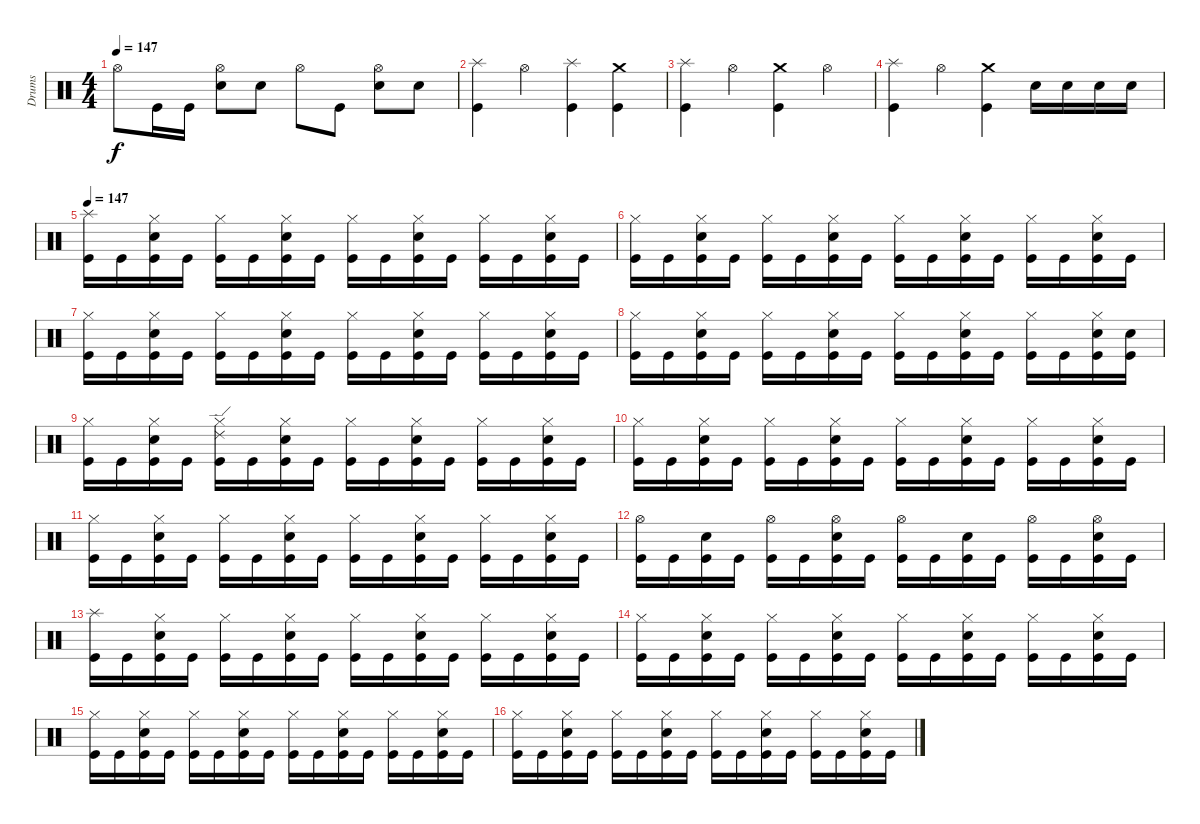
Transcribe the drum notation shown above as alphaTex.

\track ("Drums" "Drums") {instrument percussion}
\staff {score}
\articulation defaults
\ts (4 4)
\tempo 147
\clef neutral
\ks c "Hi-Hat (open)".8{dy f} "Kick (hit)".16 "Kick (hit)".16
("Snare (hit) 2" "Hi-Hat (open)").8 "Snare (hit) 2".8 "Hi-Hat (open)".8 "Kick (hit)".8 ("Snare (hit) 2" "Hi-Hat (open)").8 "Snare (hit) 2".8 |
("Splash (hit)" "Kick (hit)").4 "Hi-Hat (open)".4 ("Kick (hit)" "Splash (hit)").4 ("Kick (hit)" "Crash medium (hit)").4 |
("Splash (hit)" "Kick (hit)").4 "Hi-Hat (open)".4 ("Crash medium (hit)" "Kick (hit)").4 "Hi-Hat (open)".4 |
("Splash (hit)" "Kick (hit)").4 "Hi-Hat (open)".4 ("Kick (hit)" "Crash medium (hit)").4 "Snare (hit) 2".16 "Snare (hit) 2".16 "Snare (hit) 2".16 "Snare (hit) 2".16 |
\tempo 147
("Kick (hit)" "Splash (hit)").16 "Kick (hit)".16 ("Hi-Hat (closed)" "Snare (hit) 2" "Kick (hit)").16 "Kick (hit)".16 ("Kick (hit)" "Hi-Hat (closed)").16 "Kick (hit)".16 ("Kick (hit)" "Snare (hit) 2" "Hi-Hat (closed)").16 "Kick (hit)".16 ("Hi-Hat (closed)" "Kick (hit)").16 "Kick (hit)".16 ("Hi-Hat (closed)" "Snare (hit) 2" "Kick (hit)").16 "Kick (hit)".16 ("Kick (hit)" "Hi-Hat (closed)").16 "Kick (hit)".16 ("Hi-Hat (closed)" "Snare (hit) 2" "Kick (hit)").16 "Kick (hit)".16 |
("Hi-Hat (closed)" "Kick (hit)").16 "Kick (hit)".16 ("Snare (hit) 2" "Kick (hit)" "Hi-Hat (closed)").16 "Kick (hit)".16 ("Hi-Hat (closed)" "Kick (hit)").16 "Kick (hit)".16 ("Snare (hit) 2" "Hi-Hat (closed)" "Kick (hit)").16 "Kick (hit)".16 ("Hi-Hat (closed)" "Kick (hit)").16 "Kick (hit)".16 ("Hi-Hat (closed)" "Kick (hit)" "Snare (hit) 2").16 "Kick (hit)".16 ("Kick (hit)" "Hi-Hat (closed)").16 "Kick (hit)".16 ("Kick (hit)" "Hi-Hat (closed)" "Snare (hit) 2").16 "Kick (hit)".16 |
("Kick (hit)" "Hi-Hat (closed)").16 "Kick (hit)".16 ("Snare (hit) 2" "Kick (hit)" "Hi-Hat (closed)").16 "Kick (hit)".16 ("Kick (hit)" "Hi-Hat (closed)").16 "Kick (hit)".16 ("Snare (hit) 2" "Hi-Hat (closed)" "Kick (hit)").16 "Kick (hit)".16 ("Hi-Hat (closed)" "Kick (hit)").16 "Kick (hit)".16 ("Hi-Hat (closed)" "Kick (hit)" "Snare (hit) 2").16 "Kick (hit)".16 ("Kick (hit)" "Hi-Hat (closed)").16 "Kick (hit)".16 ("Hi-Hat (closed)" "Kick (hit)" "Snare (hit) 2").16 "Kick (hit)".16 |
("Kick (hit)" "Hi-Hat (closed)").16 "Kick (hit)".16 ("Snare (hit) 2" "Hi-Hat (closed)" "Kick (hit)").16 "Kick (hit)".16 ("Kick (hit)" "Hi-Hat (closed)").16 "Kick (hit)".16 ("Snare (hit) 2" "Kick (hit)" "Hi-Hat (closed)").16 "Kick (hit)".16 ("Hi-Hat (closed)" "Kick (hit)").16 "Kick (hit)".16 ("Snare (hit) 2" "Hi-Hat (closed)" "Kick (hit)").16 "Kick (hit)".16 ("Hi-Hat (closed)" "Kick (hit)").16 "Kick (hit)".16 ("Snare (hit) 2" "Kick (hit)" "Hi-Hat (closed)").16 ("Snare (hit) 2" "Kick (hit)").16 |
("Hi-Hat (closed)" "Kick (hit)").16 "Kick (hit)".16 ("Kick (hit)" "Snare (hit) 2" "Hi-Hat (closed)").16 "Kick (hit)".16 ("Ride (edge) 2" "Hi-Hat (closed)" "Kick (hit)").16 "Kick (hit)".16 ("Kick (hit)" "Snare (hit) 2" "Hi-Hat (closed)").16 "Kick (hit)".16 ("Hi-Hat (closed)" "Kick (hit)").16 "Kick (hit)".16 ("Kick (hit)" "Hi-Hat (closed)" "Snare (hit) 2").16 "Kick (hit)".16 ("Kick (hit)" "Hi-Hat (closed)").16 "Kick (hit)".16 ("Kick (hit)" "Hi-Hat (closed)" "Snare (hit) 2").16 "Kick (hit)".16 |
("Kick (hit)" "Hi-Hat (closed)").16 "Kick (hit)".16 ("Hi-Hat (closed)" "Snare (hit) 2" "Kick (hit)").16 "Kick (hit)".16 ("Kick (hit)" "Hi-Hat (closed)").16 "Kick (hit)".16 ("Hi-Hat (closed)" "Snare (hit) 2" "Kick (hit)").16 "Kick (hit)".16 ("Kick (hit)" "Hi-Hat (closed)").16 "Kick (hit)".16 ("Kick (hit)" "Hi-Hat (closed)" "Snare (hit) 2").16 "Kick (hit)".16 ("Kick (hit)" "Hi-Hat (closed)").16 "Kick (hit)".16 ("Hi-Hat (closed)" "Kick (hit)" "Snare (hit) 2").16 "Kick (hit)".16 |
("Kick (hit)" "Hi-Hat (closed)").16 "Kick (hit)".16 ("Hi-Hat (closed)" "Snare (hit) 2" "Kick (hit)").16 "Kick (hit)".16 ("Kick (hit)" "Hi-Hat (closed)").16 "Kick (hit)".16 ("Kick (hit)" "Snare (hit) 2" "Hi-Hat (closed)").16 "Kick (hit)".16 ("Kick (hit)" "Hi-Hat (closed)").16 "Kick (hit)".16 ("Snare (hit) 2" "Hi-Hat (closed)" "Kick (hit)").16 "Kick (hit)".16 ("Kick (hit)" "Hi-Hat (closed)").16 "Kick (hit)".16 ("Hi-Hat (closed)" "Snare (hit) 2" "Kick (hit)").16 "Kick (hit)".16 |
("Hi-Hat (open)" "Kick (hit)").16 "Kick (hit)".16 ("Kick (hit)" "Snare (hit) 2").16 "Kick (hit)".16 ("Hi-Hat (open)" "Kick (hit)").16 "Kick (hit)".16 ("Kick (hit)" "Snare (hit) 2" "Hi-Hat (open)").16 "Kick (hit)".16 ("Hi-Hat (open)" "Kick (hit)").16 "Kick (hit)".16 ("Kick (hit)" "Snare (hit) 2").16 "Kick (hit)".16 ("Hi-Hat (open)" "Kick (hit)").16 "Kick (hit)".16 ("Kick (hit)" "Snare (hit) 2" "Hi-Hat (open)").16 "Kick (hit)".16 |
("Kick (hit)" "Splash (hit)").16 "Kick (hit)".16 ("Hi-Hat (closed)" "Snare (hit) 2" "Kick (hit)").16 "Kick (hit)".16 ("Hi-Hat (closed)" "Kick (hit)").16 "Kick (hit)".16 ("Hi-Hat (closed)" "Kick (hit)" "Snare (hit) 2").16 "Kick (hit)".16 ("Kick (hit)" "Hi-Hat (closed)").16 "Kick (hit)".16 ("Kick (hit)" "Hi-Hat (closed)" "Snare (hit) 2").16 "Kick (hit)".16 ("Hi-Hat (closed)" "Kick (hit)").16 "Kick (hit)".16 ("Kick (hit)" "Hi-Hat (closed)" "Snare (hit) 2").16 "Kick (hit)".16 |
("Kick (hit)" "Hi-Hat (closed)").16 "Kick (hit)".16 ("Snare (hit) 2" "Kick (hit)" "Hi-Hat (closed)").16 "Kick (hit)".16 ("Kick (hit)" "Hi-Hat (closed)").16 "Kick (hit)".16 ("Kick (hit)" "Snare (hit) 2" "Hi-Hat (closed)").16 "Kick (hit)".16 ("Hi-Hat (closed)" "Kick (hit)").16 "Kick (hit)".16 ("Kick (hit)" "Hi-Hat (closed)" "Snare (hit) 2").16 "Kick (hit)".16 ("Hi-Hat (closed)" "Kick (hit)").16 "Kick (hit)".16 ("Kick (hit)" "Hi-Hat (closed)" "Snare (hit) 2").16 "Kick (hit)".16 |
("Kick (hit)" "Hi-Hat (closed)").16 "Kick (hit)".16 ("Hi-Hat (closed)" "Snare (hit) 2" "Kick (hit)").16 "Kick (hit)".16 ("Kick (hit)" "Hi-Hat (closed)").16 "Kick (hit)".16 ("Kick (hit)" "Hi-Hat (closed)" "Snare (hit) 2").16 "Kick (hit)".16 ("Hi-Hat (closed)" "Kick (hit)").16 "Kick (hit)".16 ("Hi-Hat (closed)" "Kick (hit)" "Snare (hit) 2").16 "Kick (hit)".16 ("Hi-Hat (closed)" "Kick (hit)").16 "Kick (hit)".16 ("Kick (hit)" "Hi-Hat (closed)" "Snare (hit) 2").16 "Kick (hit)".16 |
("Kick (hit)" "Hi-Hat (closed)").16 "Kick (hit)".16 ("Snare (hit) 2" "Hi-Hat (closed)" "Kick (hit)").16 "Kick (hit)".16 ("Kick (hit)" "Hi-Hat (closed)").16 "Kick (hit)".16 ("Hi-Hat (closed)" "Kick (hit)" "Snare (hit) 2").16 "Kick (hit)".16 ("Kick (hit)" "Hi-Hat (closed)").16 "Kick (hit)".16 ("Hi-Hat (closed)" "Kick (hit)" "Snare (hit) 2").16 "Kick (hit)".16 ("Kick (hit)" "Hi-Hat (closed)").16 "Kick (hit)".16 ("Snare (hit) 2" "Kick (hit)" "Hi-Hat (closed)").16 "Kick (hit)".16
